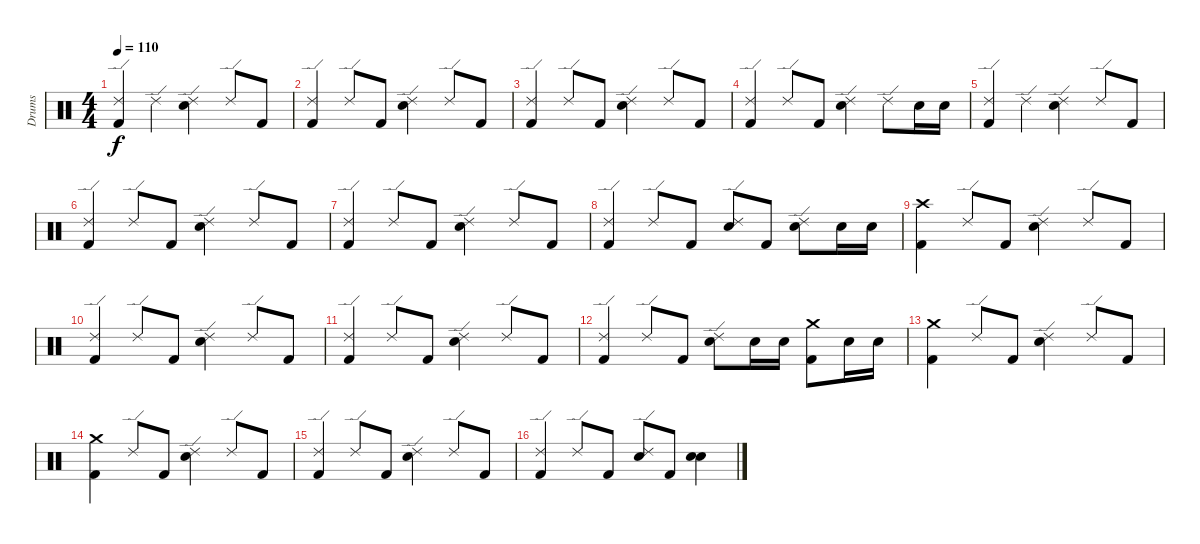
\track ("Drums" "Drums") {instrument percussion}
\staff {score}
\articulation defaults
\ts (4 4)
\tempo 110
\clef neutral
\ks c
("Ride (edge) 2" "Kick (hit) 2").4{dy f} "Ride (edge) 2".4 ("Ride (edge) 2" "Electric Snare (hit)").4 "Ride (edge) 2".8 "Kick (hit) 2".8 |
("Ride (edge) 2" "Kick (hit) 2").4 "Ride (edge) 2".8 "Kick (hit) 2".8 ("Ride (edge) 2" "Electric Snare (hit)").4 "Ride (edge) 2".8 "Kick (hit) 2".8 |
("Ride (edge) 2" "Kick (hit) 2").4 "Ride (edge) 2".8 "Kick (hit) 2".8 ("Ride (edge) 2" "Electric Snare (hit)").4 "Ride (edge) 2".8 "Kick (hit) 2".8 |
("Ride (edge) 2" "Kick (hit) 2").4 "Ride (edge) 2".8 "Kick (hit) 2".8 ("Ride (edge) 2" "Electric Snare (hit)").4 "Ride (edge) 2".8 "Electric Snare (hit)".16 "Electric Snare (hit)".16 |
("Ride (edge) 2" "Kick (hit) 2").4 "Ride (edge) 2".4 ("Ride (edge) 2" "Electric Snare (hit)").4 "Ride (edge) 2".8 "Kick (hit) 2".8 |
("Ride (edge) 2" "Kick (hit) 2").4 "Ride (edge) 2".8 "Kick (hit) 2".8 ("Ride (edge) 2" "Electric Snare (hit)").4 "Ride (edge) 2".8 "Kick (hit) 2".8 |
("Ride (edge) 2" "Kick (hit) 2").4 "Ride (edge) 2".8 "Kick (hit) 2".8 ("Ride (edge) 2" "Electric Snare (hit)").4 "Ride (edge) 2".8 "Kick (hit) 2".8 |
("Ride (edge) 2" "Kick (hit) 2").4 "Ride (edge) 2".8 "Kick (hit) 2".8 ("Ride (edge) 2" "Electric Snare (hit)").8 "Kick (hit) 2".8 ("Ride (edge) 2" "Electric Snare (hit)").8 "Electric Snare (hit)".16 "Electric Snare (hit)".16 |
("Crash high (hit)" "Kick (hit) 2").4 "Ride (edge) 2".8 "Kick (hit) 2".8 ("Ride (edge) 2" "Electric Snare (hit)").4 "Ride (edge) 2".8 "Kick (hit) 2".8 |
("Ride (edge) 2" "Kick (hit) 2").4 "Ride (edge) 2".8 "Kick (hit) 2".8 ("Ride (edge) 2" "Electric Snare (hit)").4 "Ride (edge) 2".8 "Kick (hit) 2".8 |
("Ride (edge) 2" "Kick (hit) 2").4 "Ride (edge) 2".8 "Kick (hit) 2".8 ("Ride (edge) 2" "Electric Snare (hit)").4 "Ride (edge) 2".8 "Kick (hit) 2".8 |
("Ride (edge) 2" "Kick (hit) 2").4 "Ride (edge) 2".8 "Kick (hit) 2".8 ("Ride (edge) 2" "Electric Snare (hit)").8 "Electric Snare (hit)".16 "Electric Snare (hit)".16 ("Crash medium (hit)" "Kick (hit) 2").8 "Electric Snare (hit)".16 "Electric Snare (hit)".16 |
("Crash medium (hit)" "Kick (hit) 2").4 "Ride (edge) 2".8 "Kick (hit) 2".8 ("Ride (edge) 2" "Electric Snare (hit)").4 "Ride (edge) 2".8 "Kick (hit) 2".8 |
("Crash medium (hit)" "Kick (hit) 2").4 "Ride (edge) 2".8 "Kick (hit) 2".8 ("Ride (edge) 2" "Electric Snare (hit)").4 "Ride (edge) 2".8 "Kick (hit) 2".8 |
("Ride (edge) 2" "Kick (hit) 2").4 "Ride (edge) 2".8 "Kick (hit) 2".8 ("Ride (edge) 2" "Electric Snare (hit)").4 "Ride (edge) 2".8 "Kick (hit) 2".8 |
("Ride (edge) 2" "Kick (hit) 2").4 "Ride (edge) 2".8 "Kick (hit) 2".8 ("Ride (edge) 2" "Electric Snare (hit)").8 "Kick (hit) 2".8 ("Electric Snare (hit)" "Electric Snare (hit)").4{bu 60}
